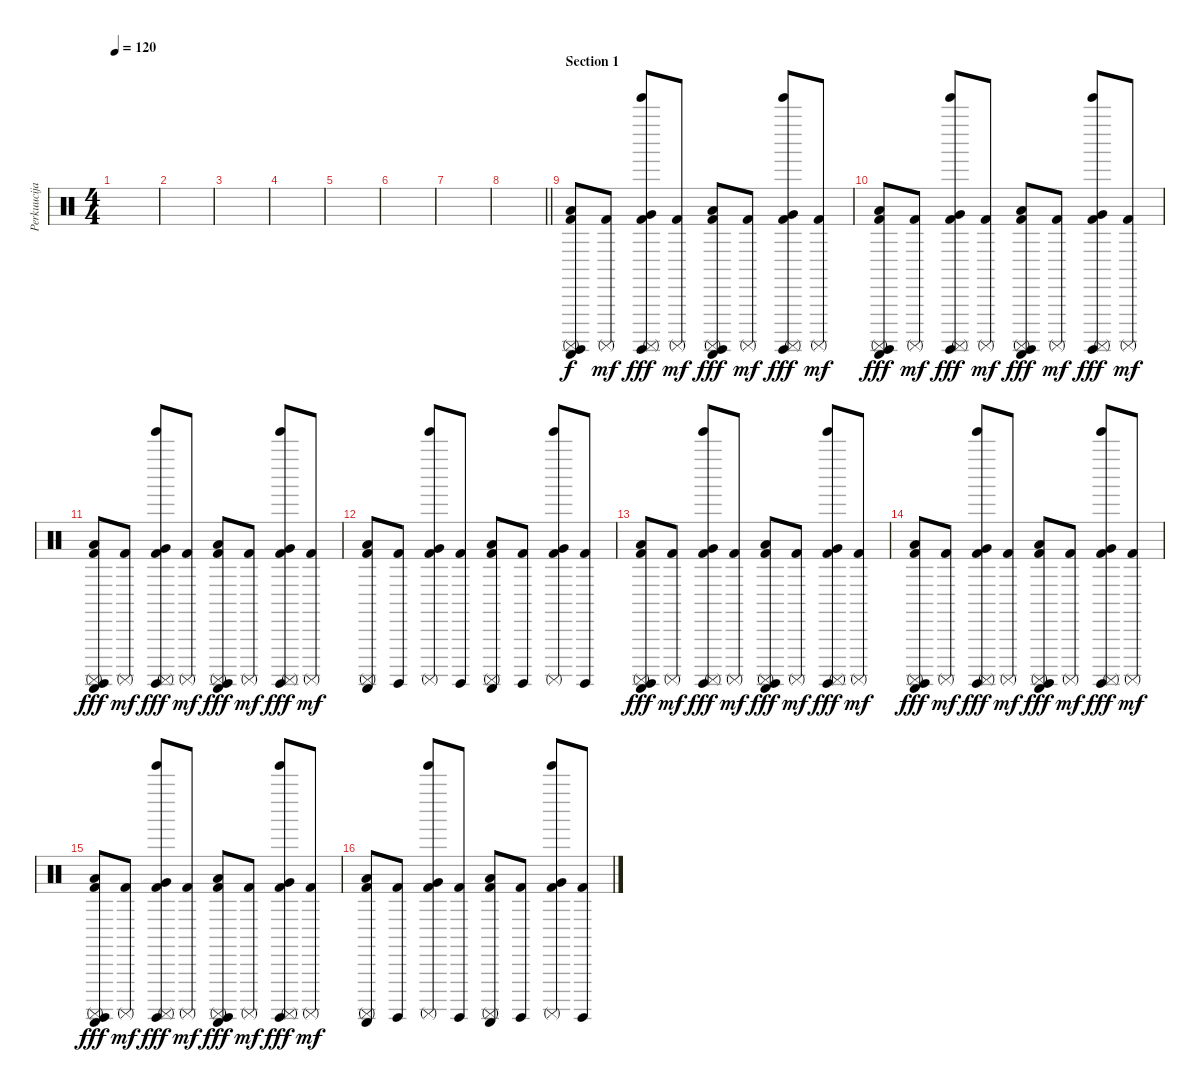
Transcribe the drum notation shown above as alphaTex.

\track ("Perkuucijas" "Perkuucija") {instrument percussion}
\staff {score}
\articulation defaults
\ts (4 4)
\tempo 120
\clef neutral
\ks c
|
|
|
|
|
|
|
\barLineRight lightlight
|
\section ("" "Section 1")
("Kick (hit) 2" "Guiro (scrap-return)" "Low Floor Tom (hit)" "Surdo (hit)" "Surdo (mute)").8 ("Kick (hit) 2" "Surdo (mute)").8{dy mf} ("Kick (hit) 2" "Tinkle Bell (hit)" "Very Low Tom (hit)" "Surdo (hit)" "Surdo (mute)").8{dy fff} ("Kick (hit) 2" "Surdo (mute)").8{dy mf} ("Kick (hit) 2" "Guiro (scrap-return)" "Low Tom (hit)" "Surdo (hit)" "Surdo (mute)").8{dy fff} ("Kick (hit) 2" "Surdo (mute)").8{dy mf} ("Kick (hit) 2" "Tinkle Bell (hit)" "Very Low Tom (hit)" "Surdo (hit)" "Surdo (mute)").8{dy fff} ("Kick (hit) 2" "Surdo (mute)").8{dy mf} |
("Kick (hit) 2" "Guiro (scrap-return)" "Low Floor Tom (hit)" "Surdo (hit)" "Surdo (mute)").8{dy fff} ("Kick (hit) 2" "Surdo (mute)").8{dy mf} ("Kick (hit) 2" "Tinkle Bell (hit)" "Very Low Tom (hit)" "Surdo (hit)" "Surdo (mute)").8{dy fff} ("Kick (hit) 2" "Surdo (mute)").8{dy mf} ("Kick (hit) 2" "Guiro (scrap-return)" "Low Tom (hit)" "Surdo (hit)" "Surdo (mute)").8{dy fff} ("Kick (hit) 2" "Surdo (mute)").8{dy mf} ("Kick (hit) 2" "Tinkle Bell (hit)" "Very Low Tom (hit)" "Surdo (hit)" "Surdo (mute)").8{dy fff} ("Kick (hit) 2" "Surdo (mute)").8{dy mf} |
("Kick (hit) 2" "Guiro (scrap-return)" "Low Floor Tom (hit)" "Surdo (hit)" "Surdo (mute)").8{dy fff} ("Kick (hit) 2" "Surdo (mute)").8{dy mf} ("Kick (hit) 2" "Tinkle Bell (hit)" "Very Low Tom (hit)" "Surdo (hit)" "Surdo (mute)").8{dy fff} ("Kick (hit) 2" "Surdo (mute)").8{dy mf} ("Kick (hit) 2" "Guiro (scrap-return)" "Low Tom (hit)" "Surdo (hit)" "Surdo (mute)").8{dy fff} ("Kick (hit) 2" "Surdo (mute)").8{dy mf} ("Kick (hit) 2" "Tinkle Bell (hit)" "Very Low Tom (hit)" "Surdo (hit)" "Surdo (mute)").8{dy fff} ("Kick (hit) 2" "Surdo (mute)").8{dy mf} |
("Kick (hit) 2" "Guiro (scrap-return)" "Low Floor Tom (hit)" "Surdo (mute)").8 ("Kick (hit) 2" "Surdo (hit)").8 ("Kick (hit) 2" "Tinkle Bell (hit)" "Very Low Tom (hit)" "Surdo (mute)").8 ("Kick (hit) 2" "Surdo (hit)").8 ("Kick (hit) 2" "Guiro (scrap-return)" "Low Tom (hit)" "Surdo (mute)").8 ("Kick (hit) 2" "Surdo (hit)").8 ("Kick (hit) 2" "Tinkle Bell (hit)" "Very Low Tom (hit)" "Surdo (mute)").8 ("Kick (hit) 2" "Surdo (hit)").8 |
("Kick (hit) 2" "Guiro (scrap-return)" "Low Floor Tom (hit)" "Surdo (hit)" "Surdo (mute)").8{dy fff} ("Kick (hit) 2" "Surdo (mute)").8{dy mf} ("Kick (hit) 2" "Tinkle Bell (hit)" "Very Low Tom (hit)" "Surdo (hit)" "Surdo (mute)").8{dy fff} ("Kick (hit) 2" "Surdo (mute)").8{dy mf} ("Kick (hit) 2" "Guiro (scrap-return)" "Low Tom (hit)" "Surdo (hit)" "Surdo (mute)").8{dy fff} ("Kick (hit) 2" "Surdo (mute)").8{dy mf} ("Kick (hit) 2" "Tinkle Bell (hit)" "Very Low Tom (hit)" "Surdo (hit)" "Surdo (mute)").8{dy fff} ("Kick (hit) 2" "Surdo (mute)").8{dy mf} |
("Kick (hit) 2" "Guiro (scrap-return)" "Low Floor Tom (hit)" "Surdo (hit)" "Surdo (mute)").8{dy fff} ("Kick (hit) 2" "Surdo (mute)").8{dy mf} ("Kick (hit) 2" "Tinkle Bell (hit)" "Very Low Tom (hit)" "Surdo (hit)" "Surdo (mute)").8{dy fff} ("Kick (hit) 2" "Surdo (mute)").8{dy mf} ("Kick (hit) 2" "Guiro (scrap-return)" "Low Tom (hit)" "Surdo (hit)" "Surdo (mute)").8{dy fff} ("Kick (hit) 2" "Surdo (mute)").8{dy mf} ("Kick (hit) 2" "Tinkle Bell (hit)" "Very Low Tom (hit)" "Surdo (hit)" "Surdo (mute)").8{dy fff} ("Kick (hit) 2" "Surdo (mute)").8{dy mf} |
("Kick (hit) 2" "Guiro (scrap-return)" "Low Floor Tom (hit)" "Surdo (hit)" "Surdo (mute)").8{dy fff} ("Kick (hit) 2" "Surdo (mute)").8{dy mf} ("Kick (hit) 2" "Tinkle Bell (hit)" "Very Low Tom (hit)" "Surdo (hit)" "Surdo (mute)").8{dy fff} ("Kick (hit) 2" "Surdo (mute)").8{dy mf} ("Kick (hit) 2" "Guiro (scrap-return)" "Low Tom (hit)" "Surdo (hit)" "Surdo (mute)").8{dy fff} ("Kick (hit) 2" "Surdo (mute)").8{dy mf} ("Kick (hit) 2" "Tinkle Bell (hit)" "Very Low Tom (hit)" "Surdo (hit)" "Surdo (mute)").8{dy fff} ("Kick (hit) 2" "Surdo (mute)").8{dy mf} |
("Kick (hit) 2" "Guiro (scrap-return)" "Low Floor Tom (hit)" "Surdo (mute)").8 ("Kick (hit) 2" "Surdo (hit)").8 ("Kick (hit) 2" "Tinkle Bell (hit)" "Very Low Tom (hit)" "Surdo (mute)").8 ("Kick (hit) 2" "Surdo (hit)").8 ("Kick (hit) 2" "Guiro (scrap-return)" "Low Tom (hit)" "Surdo (mute)").8 ("Kick (hit) 2" "Surdo (hit)").8 ("Kick (hit) 2" "Tinkle Bell (hit)" "Very Low Tom (hit)" "Surdo (mute)").8 ("Kick (hit) 2" "Surdo (hit)").8
